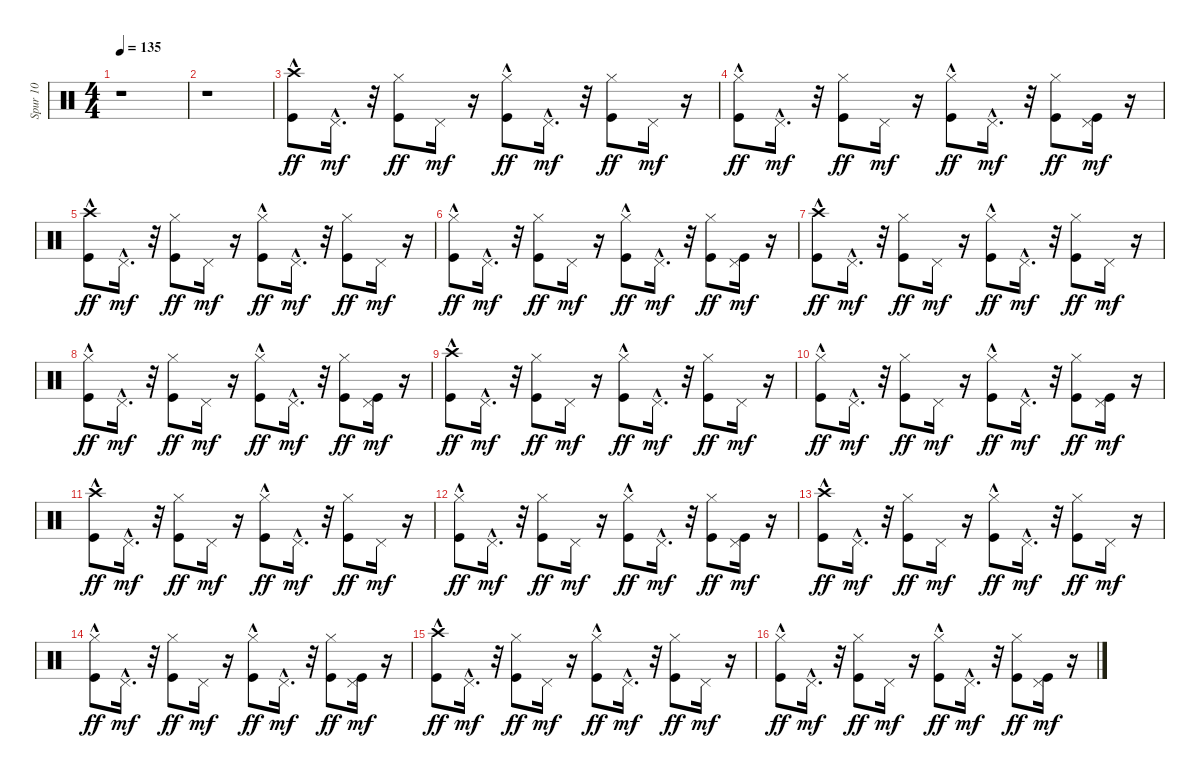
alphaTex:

\track ("Spur 10" "Spur 10") {instrument percussion}
\staff {score}
\articulation defaults
\ts (4 4)
\tempo 135
\clef neutral
\ks c
r.1{dy ff} |
r.1 |
("Crash high (hit)"{hac} "Kick (hit)").8 "Pedal Hi-Hat (hit)"{hac}.16{d dy mf} r.32 ("Hi-Hat (closed)" "Kick (hit)").8{dy ff} "Pedal Hi-Hat (hit)".16{dy mf} r.16 ("Hi-Hat (closed)"{hac} "Kick (hit)").8{dy ff} "Pedal Hi-Hat (hit)"{hac}.16{d dy mf} r.32 ("Hi-Hat (closed)" "Kick (hit)").8{dy ff} "Pedal Hi-Hat (hit)".16{dy mf} r.16 |
("Hi-Hat (closed)"{hac} "Kick (hit)").8{dy ff} "Pedal Hi-Hat (hit)"{hac}.16{d dy mf} r.32 ("Hi-Hat (closed)" "Kick (hit)").8{dy ff} "Pedal Hi-Hat (hit)".16{dy mf} r.16 ("Hi-Hat (closed)"{hac} "Kick (hit)").8{dy ff} "Pedal Hi-Hat (hit)"{hac}.16{d dy mf} r.32 ("Hi-Hat (closed)" "Kick (hit)").8{dy ff} ("Kick (hit)" "Pedal Hi-Hat (hit)").16{dy mf} r.16 |
("Crash high (hit)"{hac} "Kick (hit)").8{dy ff} "Pedal Hi-Hat (hit)"{hac}.16{d dy mf} r.32 ("Hi-Hat (closed)" "Kick (hit)").8{dy ff} "Pedal Hi-Hat (hit)".16{dy mf} r.16 ("Hi-Hat (closed)"{hac} "Kick (hit)").8{dy ff} "Pedal Hi-Hat (hit)"{hac}.16{d dy mf} r.32 ("Hi-Hat (closed)" "Kick (hit)").8{dy ff} "Pedal Hi-Hat (hit)".16{dy mf} r.16 |
("Hi-Hat (closed)"{hac} "Kick (hit)").8{dy ff} "Pedal Hi-Hat (hit)"{hac}.16{d dy mf} r.32 ("Hi-Hat (closed)" "Kick (hit)").8{dy ff} "Pedal Hi-Hat (hit)".16{dy mf} r.16 ("Hi-Hat (closed)"{hac} "Kick (hit)").8{dy ff} "Pedal Hi-Hat (hit)"{hac}.16{d dy mf} r.32 ("Hi-Hat (closed)" "Kick (hit)").8{dy ff} ("Kick (hit)" "Pedal Hi-Hat (hit)").16{dy mf} r.16 |
("Crash high (hit)"{hac} "Kick (hit)").8{dy ff} "Pedal Hi-Hat (hit)"{hac}.16{d dy mf} r.32 ("Hi-Hat (closed)" "Kick (hit)").8{dy ff} "Pedal Hi-Hat (hit)".16{dy mf} r.16 ("Hi-Hat (closed)"{hac} "Kick (hit)").8{dy ff} "Pedal Hi-Hat (hit)"{hac}.16{d dy mf} r.32 ("Hi-Hat (closed)" "Kick (hit)").8{dy ff} "Pedal Hi-Hat (hit)".16{dy mf} r.16 |
("Hi-Hat (closed)"{hac} "Kick (hit)").8{dy ff} "Pedal Hi-Hat (hit)"{hac}.16{d dy mf} r.32 ("Hi-Hat (closed)" "Kick (hit)").8{dy ff} "Pedal Hi-Hat (hit)".16{dy mf} r.16 ("Hi-Hat (closed)"{hac} "Kick (hit)").8{dy ff} "Pedal Hi-Hat (hit)"{hac}.16{d dy mf} r.32 ("Hi-Hat (closed)" "Kick (hit)").8{dy ff} ("Kick (hit)" "Pedal Hi-Hat (hit)").16{dy mf} r.16 |
("Crash high (hit)"{hac} "Kick (hit)").8{dy ff} "Pedal Hi-Hat (hit)"{hac}.16{d dy mf} r.32 ("Hi-Hat (closed)" "Kick (hit)").8{dy ff} "Pedal Hi-Hat (hit)".16{dy mf} r.16 ("Hi-Hat (closed)"{hac} "Kick (hit)").8{dy ff} "Pedal Hi-Hat (hit)"{hac}.16{d dy mf} r.32 ("Hi-Hat (closed)" "Kick (hit)").8{dy ff} "Pedal Hi-Hat (hit)".16{dy mf} r.16 |
("Hi-Hat (closed)"{hac} "Kick (hit)").8{dy ff} "Pedal Hi-Hat (hit)"{hac}.16{d dy mf} r.32 ("Hi-Hat (closed)" "Kick (hit)").8{dy ff} "Pedal Hi-Hat (hit)".16{dy mf} r.16 ("Hi-Hat (closed)"{hac} "Kick (hit)").8{dy ff} "Pedal Hi-Hat (hit)"{hac}.16{d dy mf} r.32 ("Hi-Hat (closed)" "Kick (hit)").8{dy ff} ("Kick (hit)" "Pedal Hi-Hat (hit)").16{dy mf} r.16 |
("Crash high (hit)"{hac} "Kick (hit)").8{dy ff} "Pedal Hi-Hat (hit)"{hac}.16{d dy mf} r.32 ("Hi-Hat (closed)" "Kick (hit)").8{dy ff} "Pedal Hi-Hat (hit)".16{dy mf} r.16 ("Hi-Hat (closed)"{hac} "Kick (hit)").8{dy ff} "Pedal Hi-Hat (hit)"{hac}.16{d dy mf} r.32 ("Hi-Hat (closed)" "Kick (hit)").8{dy ff} "Pedal Hi-Hat (hit)".16{dy mf} r.16 |
("Hi-Hat (closed)"{hac} "Kick (hit)").8{dy ff} "Pedal Hi-Hat (hit)"{hac}.16{d dy mf} r.32 ("Hi-Hat (closed)" "Kick (hit)").8{dy ff} "Pedal Hi-Hat (hit)".16{dy mf} r.16 ("Hi-Hat (closed)"{hac} "Kick (hit)").8{dy ff} "Pedal Hi-Hat (hit)"{hac}.16{d dy mf} r.32 ("Hi-Hat (closed)" "Kick (hit)").8{dy ff} ("Kick (hit)" "Pedal Hi-Hat (hit)").16{dy mf} r.16 |
("Crash high (hit)"{hac} "Kick (hit)").8{dy ff} "Pedal Hi-Hat (hit)"{hac}.16{d dy mf} r.32 ("Hi-Hat (closed)" "Kick (hit)").8{dy ff} "Pedal Hi-Hat (hit)".16{dy mf} r.16 ("Hi-Hat (closed)"{hac} "Kick (hit)").8{dy ff} "Pedal Hi-Hat (hit)"{hac}.16{d dy mf} r.32 ("Hi-Hat (closed)" "Kick (hit)").8{dy ff} "Pedal Hi-Hat (hit)".16{dy mf} r.16 |
("Hi-Hat (closed)"{hac} "Kick (hit)").8{dy ff} "Pedal Hi-Hat (hit)"{hac}.16{d dy mf} r.32 ("Hi-Hat (closed)" "Kick (hit)").8{dy ff} "Pedal Hi-Hat (hit)".16{dy mf} r.16 ("Hi-Hat (closed)"{hac} "Kick (hit)").8{dy ff} "Pedal Hi-Hat (hit)"{hac}.16{d dy mf} r.32 ("Hi-Hat (closed)" "Kick (hit)").8{dy ff} ("Kick (hit)" "Pedal Hi-Hat (hit)").16{dy mf} r.16 |
("Crash high (hit)"{hac} "Kick (hit)").8{dy ff} "Pedal Hi-Hat (hit)"{hac}.16{d dy mf} r.32 ("Hi-Hat (closed)" "Kick (hit)").8{dy ff} "Pedal Hi-Hat (hit)".16{dy mf} r.16 ("Hi-Hat (closed)"{hac} "Kick (hit)").8{dy ff} "Pedal Hi-Hat (hit)"{hac}.16{d dy mf} r.32 ("Hi-Hat (closed)" "Kick (hit)").8{dy ff} "Pedal Hi-Hat (hit)".16{dy mf} r.16 |
("Hi-Hat (closed)"{hac} "Kick (hit)").8{dy ff} "Pedal Hi-Hat (hit)"{hac}.16{d dy mf} r.32 ("Hi-Hat (closed)" "Kick (hit)").8{dy ff} "Pedal Hi-Hat (hit)".16{dy mf} r.16 ("Hi-Hat (closed)"{hac} "Kick (hit)").8{dy ff} "Pedal Hi-Hat (hit)"{hac}.16{d dy mf} r.32 ("Hi-Hat (closed)" "Kick (hit)").8{dy ff} ("Kick (hit)" "Pedal Hi-Hat (hit)").16{dy mf} r.16
